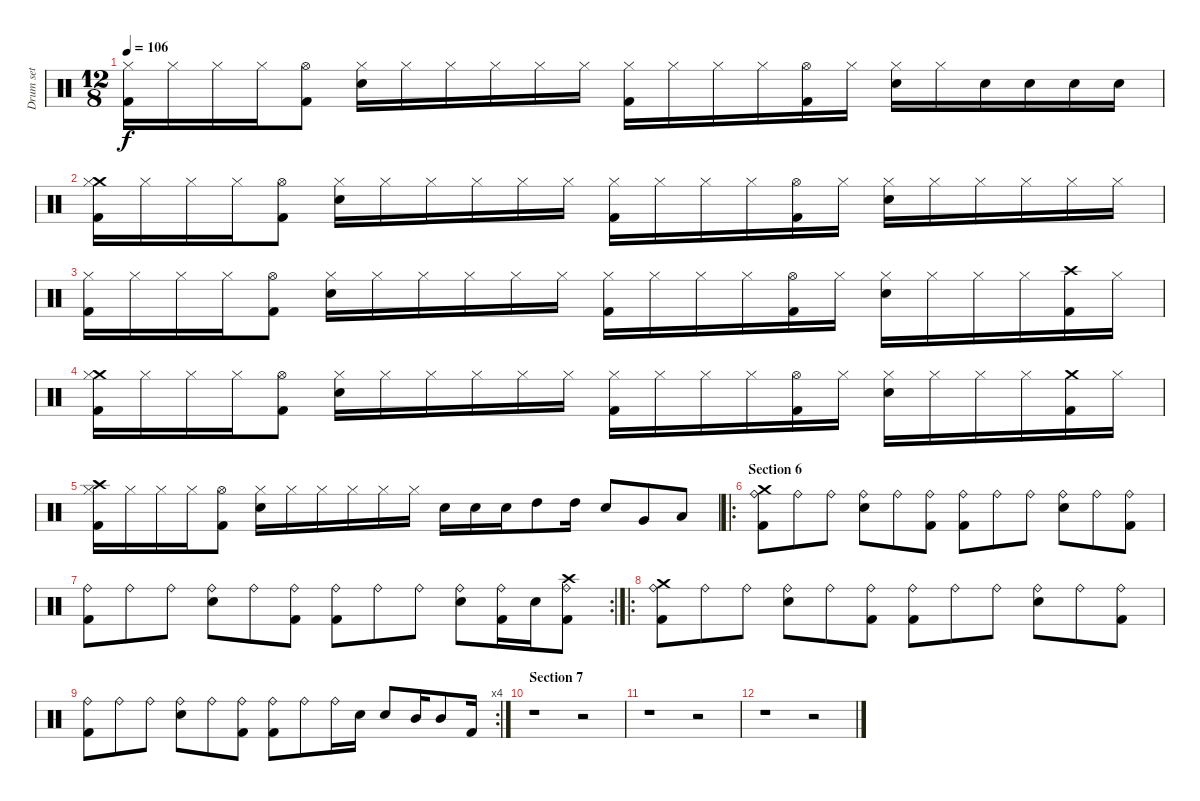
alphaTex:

\track ("Drum set" "Drum set") {instrument percussion}
\staff {score}
\articulation defaults
\ts (12 8)
\tempo 106
\clef neutral
\ks c
("Hi-Hat (closed)" "Kick (hit) 2").16{dy f} "Hi-Hat (closed)".16 "Hi-Hat (closed)".16 "Hi-Hat (closed)".16 ("Hi-Hat (open)" "Kick (hit) 2").8 ("Hi-Hat (closed)" "Snare (hit) 2").16 "Hi-Hat (closed)".16 "Hi-Hat (closed)".16 "Hi-Hat (closed)".16 "Hi-Hat (closed)".16 "Hi-Hat (closed)".16 ("Hi-Hat (closed)" "Kick (hit) 2").16 "Hi-Hat (closed)".16 "Hi-Hat (closed)".16 "Hi-Hat (closed)".16 ("Hi-Hat (open)" "Kick (hit) 2").16 "Hi-Hat (closed)".16 ("Hi-Hat (closed)" "Snare (hit) 2").16 "Hi-Hat (closed)".16 "Snare (hit) 2".16 "Snare (hit) 2".16 "Snare (hit) 2".16 "Snare (hit) 2".16 |
("Crash medium (hit)" "Hi-Hat (closed)" "Kick (hit) 2").16 "Hi-Hat (closed)".16 "Hi-Hat (closed)".16 "Hi-Hat (closed)".16 ("Hi-Hat (open)" "Kick (hit) 2").8 ("Hi-Hat (closed)" "Snare (hit) 2").16 "Hi-Hat (closed)".16 "Hi-Hat (closed)".16 "Hi-Hat (closed)".16 "Hi-Hat (closed)".16 "Hi-Hat (closed)".16 ("Hi-Hat (closed)" "Kick (hit) 2").16 "Hi-Hat (closed)".16 "Hi-Hat (closed)".16 "Hi-Hat (closed)".16 ("Hi-Hat (open)" "Kick (hit) 2").16 "Hi-Hat (closed)".16 ("Hi-Hat (closed)" "Snare (hit) 2").16 "Hi-Hat (closed)".16 "Hi-Hat (closed)".16 "Hi-Hat (closed)".16 "Hi-Hat (closed)".16 "Hi-Hat (closed)".16 |
("Hi-Hat (closed)" "Kick (hit) 2").16 "Hi-Hat (closed)".16 "Hi-Hat (closed)".16 "Hi-Hat (closed)".16 ("Hi-Hat (open)" "Kick (hit) 2").8 ("Hi-Hat (closed)" "Snare (hit) 2").16 "Hi-Hat (closed)".16 "Hi-Hat (closed)".16 "Hi-Hat (closed)".16 "Hi-Hat (closed)".16 "Hi-Hat (closed)".16 ("Hi-Hat (closed)" "Kick (hit) 2").16 "Hi-Hat (closed)".16 "Hi-Hat (closed)".16 "Hi-Hat (closed)".16 ("Hi-Hat (open)" "Kick (hit) 2").16 "Hi-Hat (closed)".16 ("Hi-Hat (closed)" "Snare (hit) 2").16 "Hi-Hat (closed)".16 "Hi-Hat (closed)".16 "Hi-Hat (closed)".16 ("Crash high (hit)" "Kick (hit) 2").16 "Hi-Hat (closed)".16 |
("Crash medium (hit)" "Hi-Hat (closed)" "Kick (hit) 2").16 "Hi-Hat (closed)".16 "Hi-Hat (closed)".16 "Hi-Hat (closed)".16 ("Hi-Hat (open)" "Kick (hit) 2").8 ("Hi-Hat (closed)" "Snare (hit) 2").16 "Hi-Hat (closed)".16 "Hi-Hat (closed)".16 "Hi-Hat (closed)".16 "Hi-Hat (closed)".16 "Hi-Hat (closed)".16 ("Hi-Hat (closed)" "Kick (hit) 2").16 "Hi-Hat (closed)".16 "Hi-Hat (closed)".16 "Hi-Hat (closed)".16 ("Hi-Hat (open)" "Kick (hit) 2").16 "Hi-Hat (closed)".16 ("Hi-Hat (closed)" "Snare (hit) 2").16 "Hi-Hat (closed)".16 "Hi-Hat (closed)".16 "Hi-Hat (closed)".16 ("Crash medium (hit)" "Kick (hit) 2").16 "Hi-Hat (closed)".16 |
("Crash high (hit)" "Hi-Hat (closed)" "Kick (hit) 2").16 "Hi-Hat (closed)".16 "Hi-Hat (closed)".16 "Hi-Hat (closed)".16 ("Hi-Hat (open)" "Kick (hit) 2").8 ("Hi-Hat (closed)" "Snare (hit) 2").16 "Hi-Hat (closed)".16 "Hi-Hat (closed)".16 "Hi-Hat (closed)".16 "Hi-Hat (closed)".16 "Hi-Hat (closed)".16 "Snare (hit) 2".16 "Snare (hit) 2".16 "Snare (hit) 2".16 "High Tom (hit)".8 "High Tom (hit)".16 "Snare (hit) 2".8 "Very Low Tom (hit)".8 "Low Floor Tom (hit)".8 |
\ro
\section ("" "Section 6")
("Crash medium (hit)" "Ride (bell)" "Kick (hit) 2").8 "Ride (bell)".8 "Ride (bell)".8 ("Ride (bell)" "Snare (hit) 2").8 "Ride (bell)".8 ("Ride (bell)" "Kick (hit) 2").8 ("Ride (bell)" "Kick (hit) 2").8 "Ride (bell)".8 "Ride (bell)".8 ("Ride (bell)" "Snare (hit) 2").8 "Ride (bell)".8 ("Ride (bell)" "Kick (hit) 2").8 |
\rc 2
("Ride (bell)" "Kick (hit) 2").8 "Ride (bell)".8 "Ride (bell)".8 ("Ride (bell)" "Snare (hit) 2").8 "Ride (bell)".8 ("Ride (bell)" "Kick (hit) 2").8 ("Ride (bell)" "Kick (hit) 2").8 "Ride (bell)".8 "Ride (bell)".8 ("Ride (bell)" "Snare (hit) 2").8 ("Ride (bell)" "Kick (hit) 2").16 "Snare (hit) 2".16 ("Crash high (hit)" "Ride (bell)" "Kick (hit) 2").8 |
\ro
("Crash medium (hit)" "Ride (bell)" "Kick (hit) 2").8 "Ride (bell)".8 "Ride (bell)".8 ("Ride (bell)" "Snare (hit) 2").8 "Ride (bell)".8 ("Ride (bell)" "Kick (hit) 2").8 ("Ride (bell)" "Kick (hit) 2").8 "Ride (bell)".8 "Ride (bell)".8 ("Ride (bell)" "Snare (hit) 2").8 "Ride (bell)".8 ("Ride (bell)" "Kick (hit) 2").8 |
\rc 4
("Ride (bell)" "Kick (hit) 2").8 "Ride (bell)".8 "Ride (bell)".8 ("Ride (bell)" "Snare (hit) 2").8 "Ride (bell)".8 ("Ride (bell)" "Kick (hit) 2").8 ("Ride (bell)" "Kick (hit) 2").8 "Ride (bell)".8 "Ride (bell)".16 "Snare (hit) 2".16 "Snare (hit) 2".8 "Mid Tom (hit)".16 "Mid Tom (hit)".8 "Kick (hit) 2".16 |
\section ("" "Section 7")
r.1 r.2 |
r.1 r.2 |
r.1 r.2
